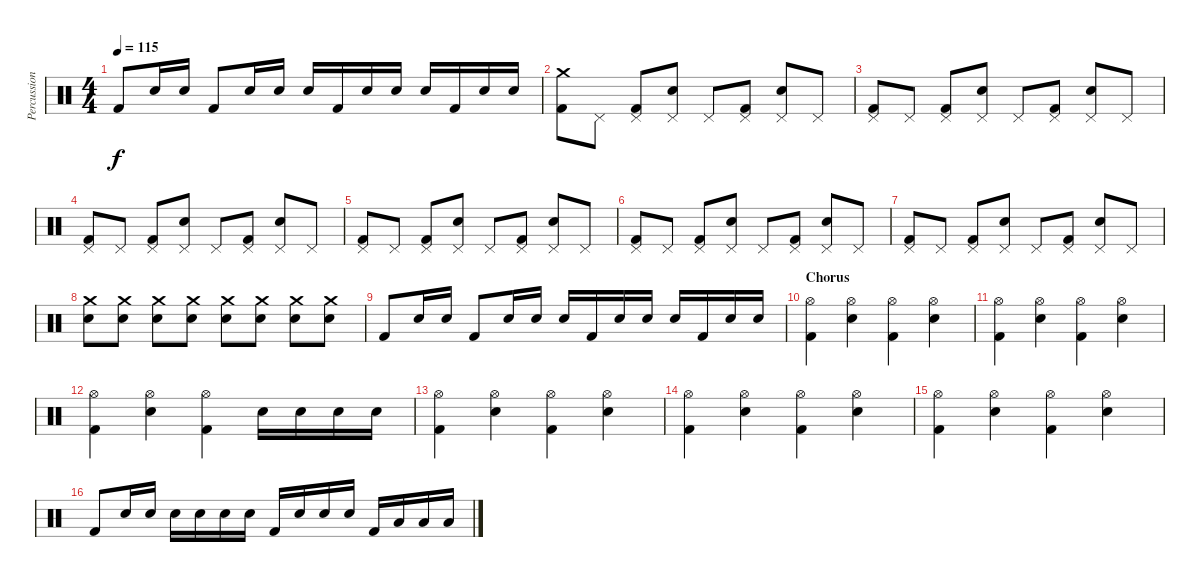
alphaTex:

\track ("Percussioni" "Percussion") {instrument percussion}
\staff {score}
\articulation defaults
\ts (4 4)
\tempo 115
\clef neutral
\ks c "Kick (hit) 2".8{dy f} "Electric Snare (hit)".16 "Electric Snare (hit)".16 "Kick (hit) 2".8 "Electric Snare (hit)".16 "Electric Snare (hit)".16 "Electric Snare (hit)".16 "Kick (hit) 2".16 "Electric Snare (hit)".16 "Electric Snare (hit)".16 "Electric Snare (hit)".16 "Kick (hit) 2".16 "Electric Snare (hit)".16 "Electric Snare (hit)".16
|
("Crash medium (hit)" "Kick (hit) 2").8 "Pedal Hi-Hat (hit)".8 ("Pedal Hi-Hat (hit)" "Kick (hit) 2").8 ("Pedal Hi-Hat (hit)" "Snare (hit) 2").8 "Pedal Hi-Hat (hit)".8 ("Pedal Hi-Hat (hit)" "Kick (hit) 2").8 ("Pedal Hi-Hat (hit)" "Snare (hit) 2").8 "Pedal Hi-Hat (hit)".8 |
("Pedal Hi-Hat (hit)" "Kick (hit) 2").8 "Pedal Hi-Hat (hit)".8 ("Pedal Hi-Hat (hit)" "Kick (hit) 2").8 ("Pedal Hi-Hat (hit)" "Snare (hit) 2").8 "Pedal Hi-Hat (hit)".8 ("Pedal Hi-Hat (hit)" "Kick (hit) 2").8 ("Pedal Hi-Hat (hit)" "Snare (hit) 2").8 "Pedal Hi-Hat (hit)".8 |
("Pedal Hi-Hat (hit)" "Kick (hit) 2").8 "Pedal Hi-Hat (hit)".8 ("Pedal Hi-Hat (hit)" "Kick (hit) 2").8 ("Pedal Hi-Hat (hit)" "Snare (hit) 2").8 "Pedal Hi-Hat (hit)".8 ("Pedal Hi-Hat (hit)" "Kick (hit) 2").8 ("Pedal Hi-Hat (hit)" "Snare (hit) 2").8 "Pedal Hi-Hat (hit)".8 |
("Pedal Hi-Hat (hit)" "Kick (hit) 2").8 "Pedal Hi-Hat (hit)".8 ("Pedal Hi-Hat (hit)" "Kick (hit) 2").8 ("Pedal Hi-Hat (hit)" "Snare (hit) 2").8 "Pedal Hi-Hat (hit)".8 ("Pedal Hi-Hat (hit)" "Kick (hit) 2").8 ("Pedal Hi-Hat (hit)" "Snare (hit) 2").8 "Pedal Hi-Hat (hit)".8 |
("Pedal Hi-Hat (hit)" "Kick (hit) 2").8 "Pedal Hi-Hat (hit)".8 ("Pedal Hi-Hat (hit)" "Kick (hit) 2").8 ("Pedal Hi-Hat (hit)" "Snare (hit) 2").8 "Pedal Hi-Hat (hit)".8 ("Pedal Hi-Hat (hit)" "Kick (hit) 2").8 ("Pedal Hi-Hat (hit)" "Snare (hit) 2").8 "Pedal Hi-Hat (hit)".8 |
("Pedal Hi-Hat (hit)" "Kick (hit) 2").8 "Pedal Hi-Hat (hit)".8 ("Pedal Hi-Hat (hit)" "Kick (hit) 2").8 ("Pedal Hi-Hat (hit)" "Snare (hit) 2").8 "Pedal Hi-Hat (hit)".8 ("Pedal Hi-Hat (hit)" "Kick (hit) 2").8 ("Pedal Hi-Hat (hit)" "Snare (hit) 2").8 "Pedal Hi-Hat (hit)".8 |
("Crash medium (hit)" "Snare (hit) 2").8 ("Crash medium (hit)" "Snare (hit) 2").8 ("Crash medium (hit)" "Snare (hit) 2").8 ("Crash medium (hit)" "Snare (hit) 2").8 ("Crash medium (hit)" "Snare (hit) 2").8 ("Crash medium (hit)" "Snare (hit) 2").8 ("Crash medium (hit)" "Snare (hit) 2").8 ("Crash medium (hit)" "Snare (hit) 2").8 |
"Kick (hit) 2".8 "Snare (hit) 2".16 "Snare (hit) 2".16 "Kick (hit) 2".8 "Snare (hit) 2".16 "Snare (hit) 2".16 "Snare (hit) 2".16 "Kick (hit) 2".16 "Snare (hit) 2".16 "Snare (hit) 2".16 "Snare (hit) 2".16 "Kick (hit) 2".16 "Snare (hit) 2".16 "Snare (hit) 2".16 |
\section ("" "Chorus")
("Hi-Hat (open)" "Kick (hit) 2").4 ("Hi-Hat (open)" "Snare (hit) 2").4 ("Hi-Hat (open)" "Kick (hit) 2").4 ("Hi-Hat (open)" "Snare (hit) 2").4 |
("Hi-Hat (open)" "Kick (hit) 2").4 ("Hi-Hat (open)" "Snare (hit) 2").4 ("Hi-Hat (open)" "Kick (hit) 2").4 ("Hi-Hat (open)" "Snare (hit) 2").4 |
("Hi-Hat (open)" "Kick (hit) 2").4 ("Hi-Hat (open)" "Snare (hit) 2").4 ("Hi-Hat (open)" "Kick (hit) 2").4 "Snare (hit) 2".16 "Snare (hit) 2".16 "Snare (hit) 2".16 "Snare (hit) 2".16 |
("Hi-Hat (open)" "Kick (hit) 2").4 ("Hi-Hat (open)" "Snare (hit) 2").4 ("Hi-Hat (open)" "Kick (hit) 2").4 ("Hi-Hat (open)" "Snare (hit) 2").4 |
("Hi-Hat (open)" "Kick (hit) 2").4 ("Hi-Hat (open)" "Snare (hit) 2").4 ("Hi-Hat (open)" "Kick (hit) 2").4 ("Hi-Hat (open)" "Snare (hit) 2").4 |
("Hi-Hat (open)" "Kick (hit) 2").4 ("Hi-Hat (open)" "Snare (hit) 2").4 ("Hi-Hat (open)" "Kick (hit) 2").4 ("Hi-Hat (open)" "Snare (hit) 2").4 |
"Kick (hit) 2".8 "Snare (hit) 2".16 "Snare (hit) 2".16 "Snare (hit) 2".16 "Snare (hit) 2".16 "Snare (hit) 2".16 "Snare (hit) 2".16 "Kick (hit) 2".16 "Snare (hit) 2".16 "Snare (hit) 2".16 "Snare (hit) 2".16 "Kick (hit) 2".16 "Low Tom (hit)".16 "Low Tom (hit)".16 "Low Tom (hit)".16
